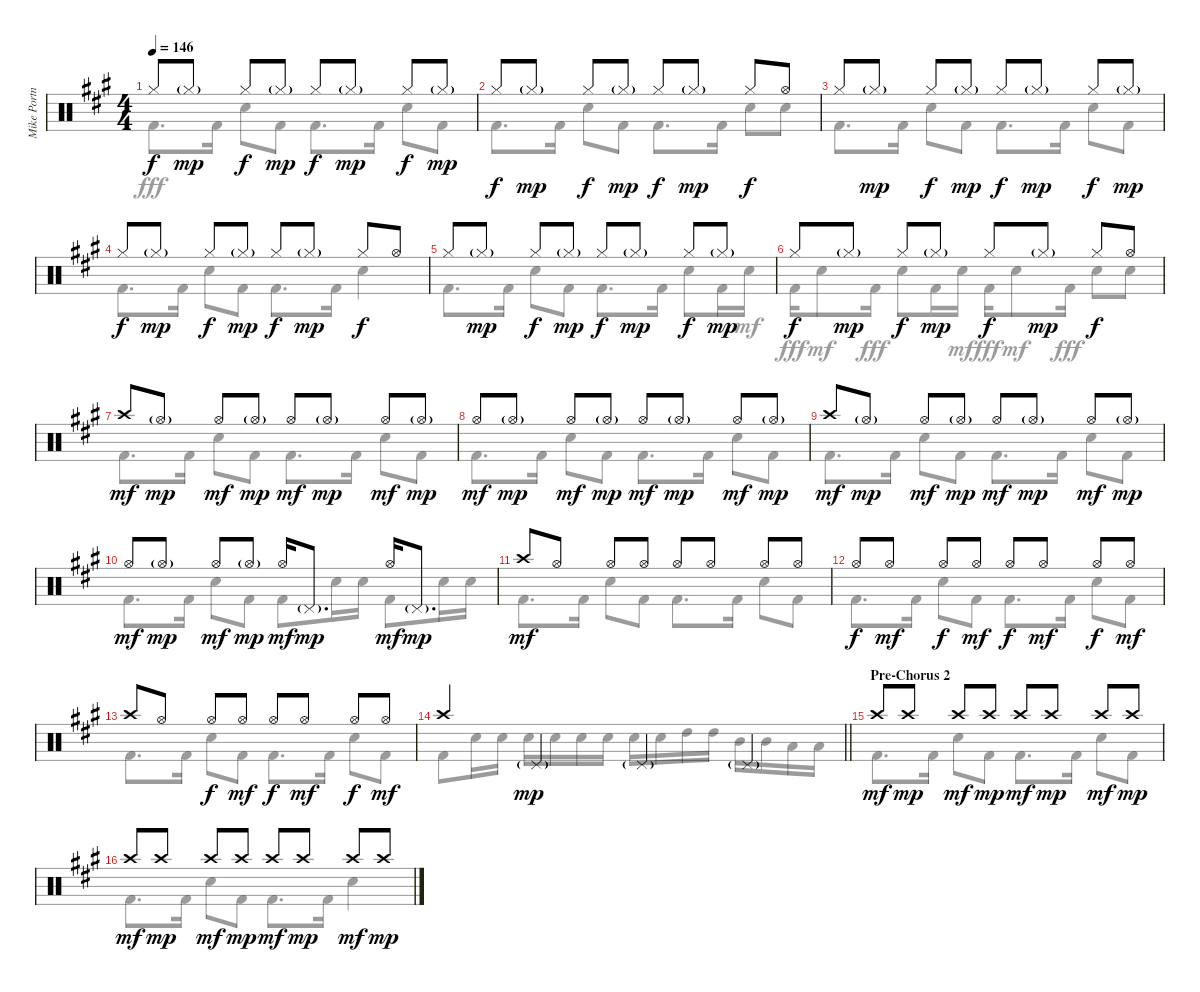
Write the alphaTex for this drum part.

\track ("Mike Portnoy Drums" "Mike Portn") {instrument percussion}
\staff {score}
\articulation defaults
\voice
\ts (4 4)
\tempo 146
\clef neutral
\ks f#minor "Hi-Hat (closed)".8{dy f} "Hi-Hat (closed)"{g}.8{dy mp} "Hi-Hat (closed)".8{dy f} "Hi-Hat (closed)"{g}.8{dy mp} "Hi-Hat (closed)".8{dy f} "Hi-Hat (closed)"{g}.8{dy mp} "Hi-Hat (closed)".8{dy f} "Hi-Hat (closed)"{g}.8{dy mp}
|
"Hi-Hat (closed)".8{dy f} "Hi-Hat (closed)"{g}.8{dy mp} "Hi-Hat (closed)".8{dy f} "Hi-Hat (closed)"{g}.8{dy mp} "Hi-Hat (closed)".8{dy f} "Hi-Hat (closed)"{g}.8{dy mp} "Hi-Hat (closed)".8{dy f} "Hi-Hat (open)".8 |
"Hi-Hat (closed)".8 "Hi-Hat (closed)"{g}.8{dy mp} "Hi-Hat (closed)".8{dy f} "Hi-Hat (closed)"{g}.8{dy mp} "Hi-Hat (closed)".8{dy f} "Hi-Hat (closed)"{g}.8{dy mp} "Hi-Hat (closed)".8{dy f} "Hi-Hat (closed)"{g}.8{dy mp} |
"Hi-Hat (closed)".8{dy f} "Hi-Hat (closed)"{g}.8{dy mp} "Hi-Hat (closed)".8{dy f} "Hi-Hat (closed)"{g}.8{dy mp} "Hi-Hat (closed)".8{dy f} "Hi-Hat (closed)"{g}.8{dy mp} "Hi-Hat (closed)".8{dy f} "Hi-Hat (open)".8 |
"Hi-Hat (closed)".8 "Hi-Hat (closed)"{g}.8{dy mp} "Hi-Hat (closed)".8{dy f} "Hi-Hat (closed)"{g}.8{dy mp} "Hi-Hat (closed)".8{dy f} "Hi-Hat (closed)"{g}.8{dy mp} "Hi-Hat (closed)".8{dy f} "Hi-Hat (closed)"{g}.8{dy mp} |
"Hi-Hat (closed)".8{dy f} "Hi-Hat (closed)"{g}.8{dy mp} "Hi-Hat (closed)".8{dy f} "Hi-Hat (closed)"{g}.8{dy mp} "Hi-Hat (closed)".8{dy f} "Hi-Hat (closed)"{g}.8{dy mp} "Hi-Hat (closed)".8{dy f} "Hi-Hat (open)".8 |
"Crash high (hit)".8{dy mf} "Hi-Hat (open)"{g}.8{dy mp} "Hi-Hat (open)".8{dy mf} "Hi-Hat (open)"{g}.8{dy mp} "Hi-Hat (open)".8{dy mf} "Hi-Hat (open)"{g}.8{dy mp} "Hi-Hat (open)".8{dy mf} "Hi-Hat (open)"{g}.8{dy mp} |
"Hi-Hat (open)".8{dy mf} "Hi-Hat (open)"{g}.8{dy mp} "Hi-Hat (open)".8{dy mf} "Hi-Hat (open)"{g}.8{dy mp} "Hi-Hat (open)".8{dy mf} "Hi-Hat (open)"{g}.8{dy mp} "Hi-Hat (open)".8{dy mf} "Hi-Hat (open)"{g}.8{dy mp} |
"Crash high (hit)".8{dy mf} "Hi-Hat (open)"{g}.8{dy mp} "Hi-Hat (open)".8{dy mf} "Hi-Hat (open)"{g}.8{dy mp} "Hi-Hat (open)".8{dy mf} "Hi-Hat (open)"{g}.8{dy mp} "Hi-Hat (open)".8{dy mf} "Hi-Hat (open)"{g}.8{dy mp} |
"Hi-Hat (open)".8{dy mf} "Hi-Hat (open)"{g}.8{dy mp} "Hi-Hat (open)".8{dy mf} "Hi-Hat (open)"{g}.8{dy mp} "Hi-Hat (open)".16{dy mf} "Pedal Hi-Hat (hit)"{g}.8{d dy mp} "Hi-Hat (open)".16{dy mf} "Pedal Hi-Hat (hit)"{g}.8{d dy mp} |
"Crash high (hit)".8{dy mf} "Hi-Hat (open)".8 "Hi-Hat (open)".8 "Hi-Hat (open)".8 "Hi-Hat (open)".8 "Hi-Hat (open)".8 "Hi-Hat (open)".8 "Hi-Hat (open)".8 |
"Hi-Hat (open)".8{dy f} "Hi-Hat (open)".8{dy mf} "Hi-Hat (open)".8{dy f} "Hi-Hat (open)".8{dy mf} "Hi-Hat (open)".8{dy f} "Hi-Hat (open)".8{dy mf} "Hi-Hat (open)".8{dy f} "Hi-Hat (open)".8{dy mf} |
"Crash high (hit)".8 "Hi-Hat (open)".8 "Hi-Hat (open)".8{dy f} "Hi-Hat (open)".8{dy mf} "Hi-Hat (open)".8{dy f} "Hi-Hat (open)".8{dy mf} "Hi-Hat (open)".8{dy f} "Hi-Hat (open)".8{dy mf} |
\barLineRight lightlight "Crash high (hit)".4 "Pedal Hi-Hat (hit)"{g}.4{dy mp} "Pedal Hi-Hat (hit)"{g}.4 "Pedal Hi-Hat (hit)"{g}.4
|
\section ("" "Pre-Chorus 2")
"Crash high (hit)".8{dy mf} "Crash high (hit)".8{dy mp} "Crash high (hit)".8{dy mf} "Crash high (hit)".8{dy mp} "Crash high (hit)".8{dy mf} "Crash high (hit)".8{dy mp} "Crash high (hit)".8{dy mf} "Crash high (hit)".8{dy mp} |
"Crash high (hit)".8{dy mf} "Crash high (hit)".8{dy mp} "Crash high (hit)".8{dy mf} "Crash high (hit)".8{dy mp} "Crash high (hit)".8{dy mf} "Crash high (hit)".8{dy mp} "Crash high (hit)".8{dy mf} "Crash high (hit)".8{dy mp}
\voice
\clef neutral
\ottava regular
\simile none
\ks f#minor "Kick (hit) 2".8{d dy fff} "Kick (hit) 2".16 "Snare (hit) 2".8 "Kick (hit) 2".8 "Kick (hit) 2".8{d} "Kick (hit) 2".16 "Snare (hit) 2".8 "Kick (hit) 2".8
|
"Kick (hit) 2".8{d} "Kick (hit) 2".16 "Snare (hit) 2".8 "Kick (hit) 2".8 "Kick (hit) 2".8{d} "Kick (hit) 2".16 "Snare (hit) 2".8 "Snare (hit) 2".8 |
"Kick (hit) 2".8{d} "Kick (hit) 2".16 "Snare (hit) 2".8 "Kick (hit) 2".8 "Kick (hit) 2".8{d} "Kick (hit) 2".16 "Snare (hit) 2".8 "Kick (hit) 2".8 |
"Kick (hit) 2".8{d} "Kick (hit) 2".16 "Snare (hit) 2".8 "Kick (hit) 2".8 "Kick (hit) 2".8{d} "Kick (hit) 2".16 "Snare (hit) 2".4 |
"Kick (hit) 2".8{d} "Kick (hit) 2".16 "Snare (hit) 2".8 "Kick (hit) 2".8 "Kick (hit) 2".8{d} "Kick (hit) 2".16 "Snare (hit) 2".8 "Kick (hit) 2".16 "Snare (hit) 2".16{dy mf} |
"Kick (hit) 2".16{dy fff} "Snare (hit) 2".8{dy mf} "Kick (hit) 2".16{dy fff} "Snare (hit) 2".8 "Kick (hit) 2".16 "Snare (hit) 2".16{dy mf} "Kick (hit) 2".16{dy fff} "Snare (hit) 2".8{dy mf} "Kick (hit) 2".16{dy fff} "Snare (hit) 2".8 "Snare (hit) 2".8 |
"Kick (hit) 2".8{d} "Kick (hit) 2".16 "Snare (hit) 2".8 "Kick (hit) 2".8 "Kick (hit) 2".8{d} "Kick (hit) 2".16 "Snare (hit) 2".8 "Kick (hit) 2".8 |
"Kick (hit) 2".8{d} "Kick (hit) 2".16 "Snare (hit) 2".8 "Kick (hit) 2".8 "Kick (hit) 2".8{d} "Kick (hit) 2".16 "Snare (hit) 2".8 "Kick (hit) 2".8 |
"Kick (hit) 2".8{d} "Kick (hit) 2".16 "Snare (hit) 2".8 "Kick (hit) 2".8 "Kick (hit) 2".8{d} "Kick (hit) 2".16 "Snare (hit) 2".8 "Kick (hit) 2".8 |
"Kick (hit) 2".8{d} "Kick (hit) 2".16 "Snare (hit) 2".8 "Kick (hit) 2".8 "Kick (hit) 2".8 "Snare (hit) 2".16 "Snare (hit) 2".16 "Kick (hit) 2".8 "Snare (hit) 2".16 "Snare (hit) 2".16 |
"Kick (hit) 2".8{d} "Kick (hit) 2".16 "Snare (hit) 2".8 "Kick (hit) 2".8 "Kick (hit) 2".8{d} "Kick (hit) 2".16 "Snare (hit) 2".8 "Kick (hit) 2".8 |
"Kick (hit) 2".8{d} "Kick (hit) 2".16 "Snare (hit) 2".8 "Kick (hit) 2".8 "Kick (hit) 2".8{d} "Kick (hit) 2".16 "Snare (hit) 2".8 "Kick (hit) 2".8 |
"Kick (hit) 2".8{d} "Kick (hit) 2".16 "Snare (hit) 2".8 "Kick (hit) 2".8 "Kick (hit) 2".8{d} "Kick (hit) 2".16 "Snare (hit) 2".8 "Kick (hit) 2".8 |
\barLineRight lightlight "Kick (hit) 2".8 "Snare (hit) 2".16 "Snare (hit) 2".16 "Snare (hit) 2".16 "Snare (hit) 2".16 "Snare (hit) 2".16 "Snare (hit) 2".16 "Snare (hit) 2".16 "Snare (hit) 2".16 "High Tom (hit)".16 "High Tom (hit)".16 "Mid Tom (hit)".16 "Mid Tom (hit)".16 "Low Tom (hit)".16 "Low Tom (hit)".16
|
"Kick (hit) 2".8{d} "Kick (hit) 2".16 "Snare (hit) 2".8 "Kick (hit) 2".8 "Kick (hit) 2".8{d} "Kick (hit) 2".16 "Snare (hit) 2".8 "Kick (hit) 2".8 |
"Kick (hit) 2".8{d} "Kick (hit) 2".16 "Snare (hit) 2".8 "Kick (hit) 2".8 "Kick (hit) 2".8{d} "Kick (hit) 2".16 "Snare (hit) 2".4
